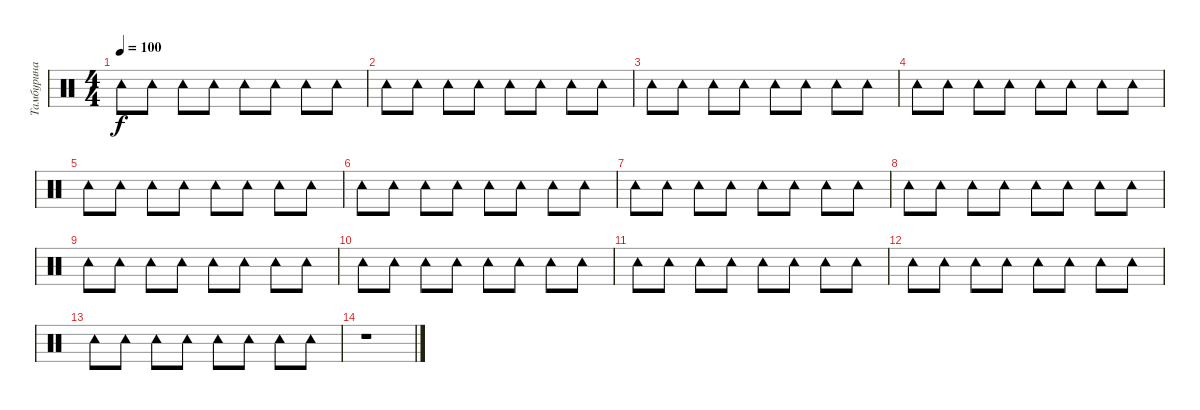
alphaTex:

\track ("Тамбурина" "Тамбурина") {instrument percussion}
\staff {score}
\articulation defaults
\ts (4 4)
\tempo 100
\clef neutral
\ks c "Tambourine (hit)".8{dy f} "Tambourine (hit)".8 "Tambourine (hit)".8 "Tambourine (hit)".8 "Tambourine (hit)".8 "Tambourine (hit)".8 "Tambourine (hit)".8 "Tambourine (hit)".8
|
"Tambourine (hit)".8 "Tambourine (hit)".8 "Tambourine (hit)".8 "Tambourine (hit)".8 "Tambourine (hit)".8 "Tambourine (hit)".8 "Tambourine (hit)".8 "Tambourine (hit)".8 |
"Tambourine (hit)".8 "Tambourine (hit)".8 "Tambourine (hit)".8 "Tambourine (hit)".8 "Tambourine (hit)".8 "Tambourine (hit)".8 "Tambourine (hit)".8 "Tambourine (hit)".8 |
"Tambourine (hit)".8 "Tambourine (hit)".8 "Tambourine (hit)".8 "Tambourine (hit)".8 "Tambourine (hit)".8 "Tambourine (hit)".8 "Tambourine (hit)".8 "Tambourine (hit)".8 |
"Tambourine (hit)".8 "Tambourine (hit)".8 "Tambourine (hit)".8 "Tambourine (hit)".8 "Tambourine (hit)".8 "Tambourine (hit)".8 "Tambourine (hit)".8 "Tambourine (hit)".8 |
"Tambourine (hit)".8 "Tambourine (hit)".8 "Tambourine (hit)".8 "Tambourine (hit)".8 "Tambourine (hit)".8 "Tambourine (hit)".8 "Tambourine (hit)".8 "Tambourine (hit)".8 |
"Tambourine (hit)".8 "Tambourine (hit)".8 "Tambourine (hit)".8 "Tambourine (hit)".8 "Tambourine (hit)".8 "Tambourine (hit)".8 "Tambourine (hit)".8 "Tambourine (hit)".8 |
"Tambourine (hit)".8 "Tambourine (hit)".8 "Tambourine (hit)".8 "Tambourine (hit)".8 "Tambourine (hit)".8 "Tambourine (hit)".8 "Tambourine (hit)".8 "Tambourine (hit)".8 |
"Tambourine (hit)".8 "Tambourine (hit)".8 "Tambourine (hit)".8 "Tambourine (hit)".8 "Tambourine (hit)".8 "Tambourine (hit)".8 "Tambourine (hit)".8 "Tambourine (hit)".8 |
"Tambourine (hit)".8 "Tambourine (hit)".8 "Tambourine (hit)".8 "Tambourine (hit)".8 "Tambourine (hit)".8 "Tambourine (hit)".8 "Tambourine (hit)".8 "Tambourine (hit)".8 |
"Tambourine (hit)".8 "Tambourine (hit)".8 "Tambourine (hit)".8 "Tambourine (hit)".8 "Tambourine (hit)".8 "Tambourine (hit)".8 "Tambourine (hit)".8 "Tambourine (hit)".8 |
"Tambourine (hit)".8 "Tambourine (hit)".8 "Tambourine (hit)".8 "Tambourine (hit)".8 "Tambourine (hit)".8 "Tambourine (hit)".8 "Tambourine (hit)".8 "Tambourine (hit)".8 |
"Tambourine (hit)".8 "Tambourine (hit)".8 "Tambourine (hit)".8 "Tambourine (hit)".8 "Tambourine (hit)".8 "Tambourine (hit)".8 "Tambourine (hit)".8 "Tambourine (hit)".8 |
r.1
